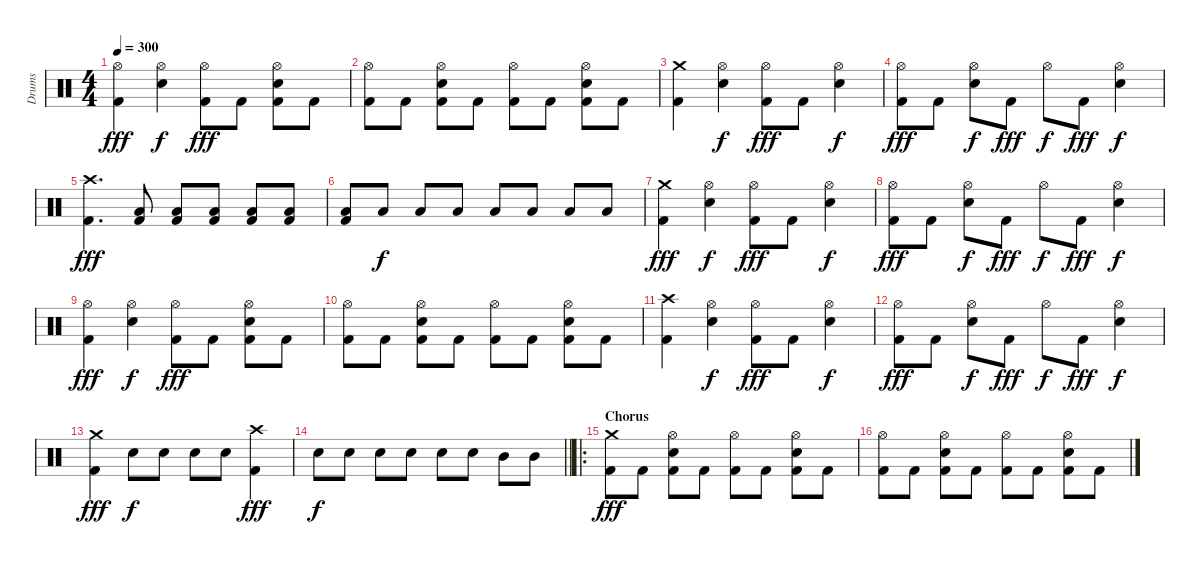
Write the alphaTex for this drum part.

\track ("Drums" "Drums") {instrument percussion}
\staff {score}
\articulation defaults
\ts (4 4)
\tempo 300
\clef neutral
\ks c
("Hi-Hat (open)" "Kick (hit) 2").4{dy fff} ("Hi-Hat (open)" "Snare (hit) 2").4{dy f} ("Hi-Hat (open)" "Kick (hit) 2").8{dy fff} "Kick (hit) 2".8 ("Hi-Hat (open)" "Snare (hit) 2" "Kick (hit) 2").8 "Kick (hit) 2".8 |
("Hi-Hat (open)" "Kick (hit) 2").8 "Kick (hit) 2".8 ("Hi-Hat (open)" "Snare (hit) 2" "Kick (hit) 2").8 "Kick (hit) 2".8 ("Hi-Hat (open)" "Kick (hit) 2").8 "Kick (hit) 2".8 ("Hi-Hat (open)" "Snare (hit) 2" "Kick (hit) 2").8 "Kick (hit) 2".8 |
("Crash medium (hit)" "Kick (hit) 2").4 ("Hi-Hat (open)" "Snare (hit) 2").4{dy f} ("Hi-Hat (open)" "Kick (hit) 2").8{dy fff} "Kick (hit) 2".8 ("Hi-Hat (open)" "Snare (hit) 2").4{dy f} |
("Hi-Hat (open)" "Kick (hit) 2").8{dy fff} "Kick (hit) 2".8 ("Hi-Hat (open)" "Snare (hit) 2").8{dy f} "Kick (hit) 2".8{dy fff} "Hi-Hat (open)".8{dy f} "Kick (hit) 2".8{dy fff} ("Hi-Hat (open)" "Snare (hit) 2").4{dy f} |
("Crash high (hit)" "Kick (hit) 2").4{d dy fff} ("Low Floor Tom (hit)" "Kick (hit) 2").8 ("Low Floor Tom (hit)" "Kick (hit) 2").8 ("Low Floor Tom (hit)" "Kick (hit) 2").8 ("Low Floor Tom (hit)" "Kick (hit) 2").8 ("Low Floor Tom (hit)" "Kick (hit) 2").8 |
("Low Floor Tom (hit)" "Kick (hit) 2").8 "Low Floor Tom (hit)".8{dy f} "Low Floor Tom (hit)".8 "Low Floor Tom (hit)".8 "Low Floor Tom (hit)".8 "Low Floor Tom (hit)".8 "Low Floor Tom (hit)".8 "Low Floor Tom (hit)".8 |
("Crash medium (hit)" "Kick (hit) 2").4{dy fff} ("Hi-Hat (open)" "Snare (hit) 2").4{dy f} ("Hi-Hat (open)" "Kick (hit) 2").8{dy fff} "Kick (hit) 2".8 ("Hi-Hat (open)" "Snare (hit) 2").4{dy f} |
("Hi-Hat (open)" "Kick (hit) 2").8{dy fff} "Kick (hit) 2".8 ("Hi-Hat (open)" "Snare (hit) 2").8{dy f} "Kick (hit) 2".8{dy fff} "Hi-Hat (open)".8{dy f} "Kick (hit) 2".8{dy fff} ("Hi-Hat (open)" "Snare (hit) 2").4{dy f} |
("Hi-Hat (open)" "Kick (hit) 2").4{dy fff} ("Hi-Hat (open)" "Snare (hit) 2").4{dy f} ("Hi-Hat (open)" "Kick (hit) 2").8{dy fff} "Kick (hit) 2".8 ("Hi-Hat (open)" "Snare (hit) 2" "Kick (hit) 2").8 "Kick (hit) 2".8 |
("Hi-Hat (open)" "Kick (hit) 2").8 "Kick (hit) 2".8 ("Hi-Hat (open)" "Snare (hit) 2" "Kick (hit) 2").8 "Kick (hit) 2".8 ("Hi-Hat (open)" "Kick (hit) 2").8 "Kick (hit) 2".8 ("Hi-Hat (open)" "Snare (hit) 2" "Kick (hit) 2").8 "Kick (hit) 2".8 |
("Crash high (hit)" "Kick (hit) 2").4 ("Hi-Hat (open)" "Snare (hit) 2").4{dy f} ("Hi-Hat (open)" "Kick (hit) 2").8{dy fff} "Kick (hit) 2".8 ("Hi-Hat (open)" "Snare (hit) 2").4{dy f} |
("Hi-Hat (open)" "Kick (hit) 2").8{dy fff} "Kick (hit) 2".8 ("Hi-Hat (open)" "Snare (hit) 2").8{dy f} "Kick (hit) 2".8{dy fff} "Hi-Hat (open)".8{dy f} "Kick (hit) 2".8{dy fff} ("Hi-Hat (open)" "Snare (hit) 2").4{dy f} |
("Crash medium (hit)" "Kick (hit) 2").4{dy fff} "Snare (hit) 2".8{dy f} "Snare (hit) 2".8 "Snare (hit) 2".8 "Snare (hit) 2".8 ("Crash high (hit)" "Kick (hit) 2").4{dy fff} |
\barLineRight lightlight "Snare (hit) 2".8{dy f} "Snare (hit) 2".8 "Snare (hit) 2".8 "Snare (hit) 2".8 "Snare (hit) 2".8 "Snare (hit) 2".8 "Mid Tom (hit)".8 "Mid Tom (hit)".8
|
\ro
\section ("" "Chorus")
("Crash medium (hit)" "Kick (hit) 2").8{dy fff} "Kick (hit) 2".8 ("Hi-Hat (open)" "Snare (hit) 2" "Kick (hit) 2").8 "Kick (hit) 2".8 ("Hi-Hat (open)" "Kick (hit) 2").8 "Kick (hit) 2".8 ("Hi-Hat (open)" "Snare (hit) 2" "Kick (hit) 2").8 "Kick (hit) 2".8 |
("Hi-Hat (open)" "Kick (hit) 2").8 "Kick (hit) 2".8 ("Hi-Hat (open)" "Snare (hit) 2" "Kick (hit) 2").8 "Kick (hit) 2".8 ("Hi-Hat (open)" "Kick (hit) 2").8 "Kick (hit) 2".8 ("Hi-Hat (open)" "Snare (hit) 2" "Kick (hit) 2").8 "Kick (hit) 2".8
